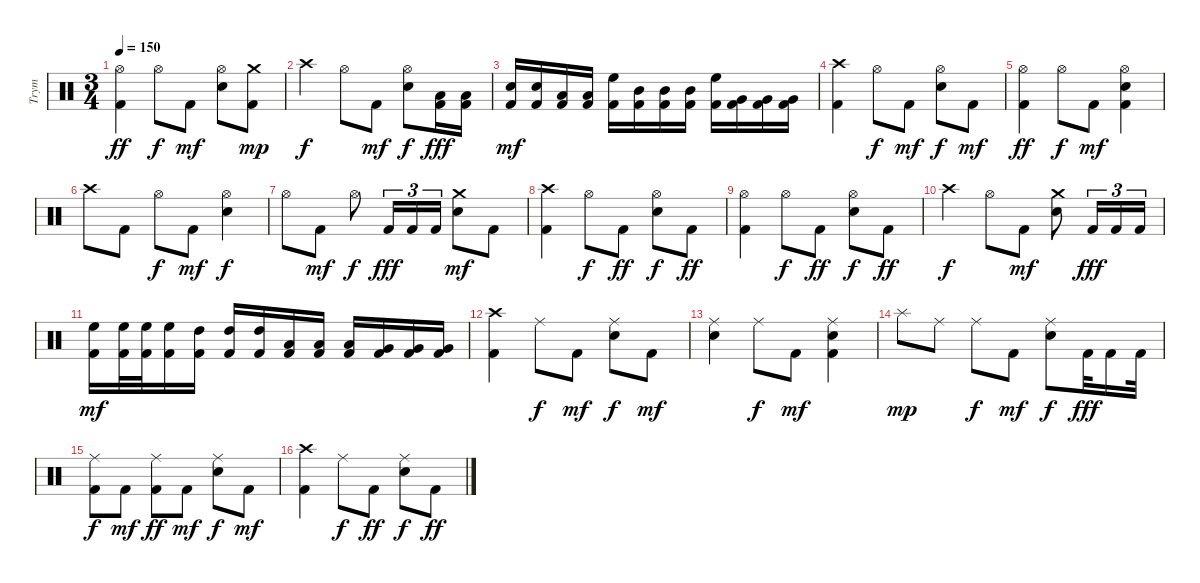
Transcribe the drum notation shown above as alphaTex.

\track ("Trym" "Trym") {instrument percussion}
\staff {score}
\articulation defaults
\ts (3 4)
\tempo 150
\clef neutral
\ks c
("Hi-Hat (open)" "Kick (hit) 2").4{dy ff} "Hi-Hat (open)".8{dy f} "Kick (hit) 2".8{dy mf} ("Snare (hit) 2" "Hi-Hat (open)").8 ("Crash medium (hit)" "Kick (hit) 2").8{dy mp} |
"Crash high (hit)".4{dy f} "Hi-Hat (open)".8 "Kick (hit) 2".8{dy mf} ("Snare (hit) 2" "Hi-Hat (open)").8{dy f} ("Low Tom (hit)" "Kick (hit) 2").16{dy fff} ("Low Tom (hit)" "Kick (hit) 2").16 |
("Snare (hit) 2" "Kick (hit) 2").16{dy mf} ("Snare (hit) 2" "Kick (hit) 2").16 ("Low Tom (hit)" "Kick (hit) 2").16 ("Low Tom (hit)" "Kick (hit) 2").16 ("High Floor Tom (hit)" "Kick (hit) 2").16 ("Mid Tom (hit)" "Kick (hit) 2").16 ("Mid Tom (hit)" "Kick (hit) 2").16 ("Mid Tom (hit)" "Kick (hit) 2").16 ("High Floor Tom (hit)" "Kick (hit) 2").16 ("Very Low Tom (hit)" "Kick (hit) 2").16 ("Very Low Tom (hit)" "Kick (hit) 2").16 ("Very Low Tom (hit)" "Kick (hit) 2").16 |
("Crash high (hit)" "Kick (hit) 2").4 "Hi-Hat (open)".8{dy f} "Kick (hit) 2".8{dy mf} ("Snare (hit) 2" "Hi-Hat (open)").8{dy f} "Kick (hit) 2".8{dy mf} |
("Hi-Hat (open)" "Kick (hit) 2").4{dy ff} "Hi-Hat (open)".8{dy f} "Kick (hit) 2".8{dy mf} ("Snare (hit) 2" "Hi-Hat (open)" "Kick (hit) 2").4 |
"Crash high (hit)".8 "Kick (hit) 2".8 "Hi-Hat (open)".8{dy f} "Kick (hit) 2".8{dy mf} ("Snare (hit) 2" "Hi-Hat (open)").4{dy f} |
"Hi-Hat (open)".8 "Kick (hit) 2".8{dy mf} "Hi-Hat (open)".8{dy f} "Kick (hit) 2".16{tu (3 2) dy fff} "Kick (hit) 2".16{tu (3 2)} "Kick (hit) 2".16{tu (3 2)} ("Snare (hit) 2" "Crash medium (hit)").8{dy mf} "Kick (hit) 2".8 |
("Crash high (hit)" "Kick (hit) 2").4 "Hi-Hat (open)".8{dy f} "Kick (hit) 2".8{dy ff} ("Snare (hit) 2" "Hi-Hat (open)").8{dy f} "Kick (hit) 2".8{dy ff} |
("Hi-Hat (open)" "Kick (hit) 2").4 "Hi-Hat (open)".8{dy f} "Kick (hit) 2".8{dy ff} ("Snare (hit) 2" "Hi-Hat (open)").8{dy f} "Kick (hit) 2".8{dy ff} |
"Crash high (hit)".4{dy f} "Hi-Hat (open)".8 "Kick (hit) 2".8{dy mf} ("Snare (hit) 2" "Crash medium (hit)").8 "Kick (hit) 2".16{tu (3 2) dy fff} "Kick (hit) 2".16{tu (3 2)} "Kick (hit) 2".16{tu (3 2)} |
("High Floor Tom (hit)" "Kick (hit) 2").16{dy mf} ("High Floor Tom (hit)" "Kick (hit) 2").32 ("High Floor Tom (hit)" "Kick (hit) 2").32 ("High Floor Tom (hit)" "Kick (hit) 2").16 ("High Tom (hit)" "Kick (hit) 2").16 ("High Tom (hit)" "Kick (hit) 2").16 ("High Tom (hit)" "Kick (hit) 2").16 ("Low Tom (hit)" "Kick (hit) 2").16 ("Low Tom (hit)" "Kick (hit) 2").16 ("Low Tom (hit)" "Kick (hit) 2").16 ("Very Low Tom (hit)" "Kick (hit) 2").16 ("Very Low Tom (hit)" "Kick (hit) 2").16 ("Very Low Tom (hit)" "Kick (hit) 2").16 |
("Crash high (hit)" "Kick (hit) 2").4 "Ride (middle)".8{dy f} "Kick (hit) 2".8{dy mf} ("Snare (hit) 2" "Ride (middle)").8{dy f} "Kick (hit) 2".8{dy mf} |
("Snare (hit) 2" "Ride (middle)").4 "Ride (middle)".8{dy f} "Kick (hit) 2".8{dy mf} ("Snare (hit) 2" "Ride (middle)" "Kick (hit) 2").4 |
"Splash (hit)".8{dy mp} "Ride (middle)".8 "Ride (middle)".8{dy f} "Kick (hit) 2".8{dy mf} ("Snare (hit) 2" "Ride (middle)").8{dy f} "Kick (hit) 2".32{dy fff} "Kick (hit) 2".16 "Kick (hit) 2".32 |
("Ride (middle)" "Kick (hit) 2").8{dy f} "Kick (hit) 2".8{dy mf} ("Ride (middle)" "Kick (hit) 2").8{dy ff} "Kick (hit) 2".8{dy mf} ("Snare (hit) 2" "Ride (middle)").8{dy f} "Kick (hit) 2".8{dy mf} |
("Crash high (hit)" "Kick (hit) 2").4 "Ride (middle)".8{dy f} "Kick (hit) 2".8{dy ff} ("Snare (hit) 2" "Ride (middle)").8{dy f} "Kick (hit) 2".8{dy ff}
